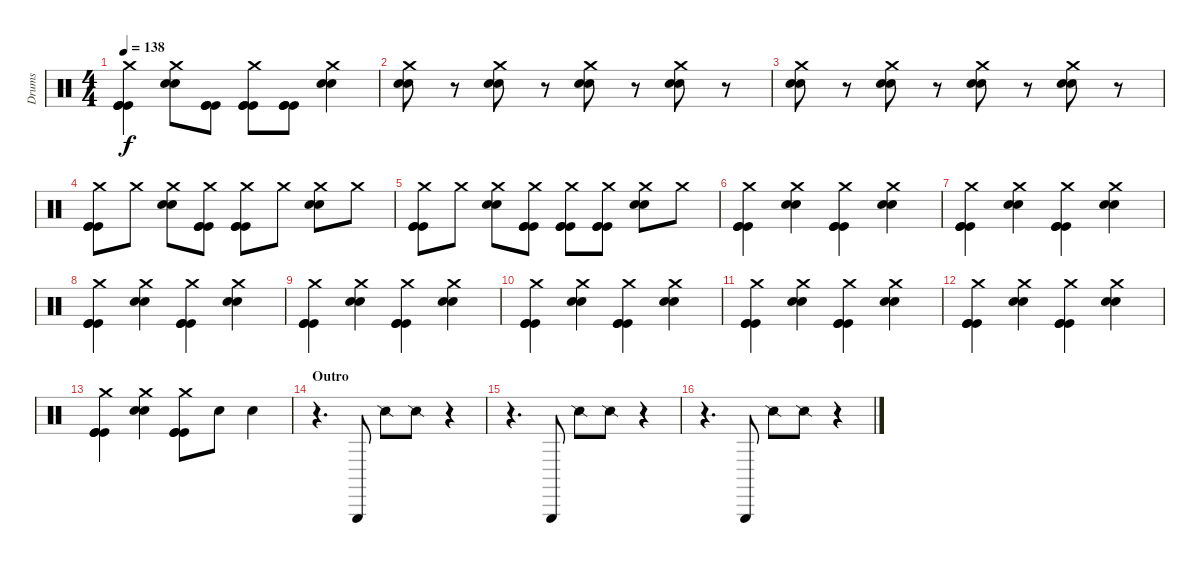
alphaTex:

\track ("Drums" "Drums") {instrument percussion}
\staff {score}
\articulation defaults
\ts (4 4)
\tempo 138
\clef neutral
\ks c
("Crash medium (hit)" "Kick (hit)" "Kick (hit)" "Kick (hit)").4{dy f} ("Crash medium (hit)" "Electric Snare (hit)" "Electric Snare (hit)").8 ("Kick (hit)" "Kick (hit)" "Kick (hit)").8 ("Crash medium (hit)" "Kick (hit)" "Kick (hit)" "Kick (hit)").8 ("Kick (hit)" "Kick (hit)" "Kick (hit)").8 ("Crash medium (hit)" "Electric Snare (hit)" "Electric Snare (hit)").4 |
("Crash medium (hit)" "Electric Snare (hit)" "Electric Snare (hit)").8 r.8 ("Crash medium (hit)" "Electric Snare (hit)" "Electric Snare (hit)").8 r.8 ("Crash medium (hit)" "Electric Snare (hit)" "Electric Snare (hit)").8 r.8 ("Crash medium (hit)" "Electric Snare (hit)" "Electric Snare (hit)").8 r.8 |
("Crash medium (hit)" "Electric Snare (hit)" "Electric Snare (hit)").8 r.8 ("Crash medium (hit)" "Electric Snare (hit)" "Electric Snare (hit)").8 r.8 ("Crash medium (hit)" "Electric Snare (hit)" "Electric Snare (hit)").8 r.8 ("Crash medium (hit)" "Electric Snare (hit)" "Electric Snare (hit)").8 r.8 |
("Crash medium (hit)" "Kick (hit)" "Kick (hit)" "Kick (hit)").8 "Crash medium (hit)".8 ("Crash medium (hit)" "Electric Snare (hit)" "Electric Snare (hit)").8 ("Crash medium (hit)" "Kick (hit)" "Kick (hit)" "Kick (hit)").8 ("Crash medium (hit)" "Kick (hit)" "Kick (hit)" "Kick (hit)").8 "Crash medium (hit)".8 ("Crash medium (hit)" "Electric Snare (hit)" "Electric Snare (hit)").8 "Crash medium (hit)".8 |
("Crash medium (hit)" "Kick (hit)" "Kick (hit)" "Kick (hit)").8 "Crash medium (hit)".8 ("Crash medium (hit)" "Electric Snare (hit)" "Electric Snare (hit)").8 ("Crash medium (hit)" "Kick (hit)" "Kick (hit)" "Kick (hit)").8 ("Crash medium (hit)" "Kick (hit)" "Kick (hit)" "Kick (hit)").8 ("Crash medium (hit)" "Kick (hit)" "Kick (hit)" "Kick (hit)").8 ("Crash medium (hit)" "Electric Snare (hit)" "Electric Snare (hit)").8 "Crash medium (hit)".8 |
("Crash medium (hit)" "Kick (hit)" "Kick (hit)" "Kick (hit)").4 ("Crash medium (hit)" "Electric Snare (hit)" "Electric Snare (hit)").4 ("Crash medium (hit)" "Kick (hit)" "Kick (hit)" "Kick (hit)").4 ("Crash medium (hit)" "Electric Snare (hit)" "Electric Snare (hit)").4 |
("Crash medium (hit)" "Kick (hit)" "Kick (hit)" "Kick (hit)").4 ("Crash medium (hit)" "Electric Snare (hit)" "Electric Snare (hit)").4 ("Crash medium (hit)" "Kick (hit)" "Kick (hit)" "Kick (hit)").4 ("Crash medium (hit)" "Electric Snare (hit)" "Electric Snare (hit)").4 |
("Crash medium (hit)" "Kick (hit)" "Kick (hit)" "Kick (hit)").4 ("Crash medium (hit)" "Electric Snare (hit)" "Electric Snare (hit)").4 ("Crash medium (hit)" "Kick (hit)" "Kick (hit)" "Kick (hit)").4 ("Crash medium (hit)" "Electric Snare (hit)" "Electric Snare (hit)").4 |
("Crash medium (hit)" "Kick (hit)" "Kick (hit)" "Kick (hit)").4 ("Crash medium (hit)" "Electric Snare (hit)" "Electric Snare (hit)").4 ("Crash medium (hit)" "Kick (hit)" "Kick (hit)" "Kick (hit)").4 ("Crash medium (hit)" "Electric Snare (hit)" "Electric Snare (hit)").4 |
("Crash medium (hit)" "Kick (hit)" "Kick (hit)" "Kick (hit)").4 ("Crash medium (hit)" "Electric Snare (hit)" "Electric Snare (hit)").4 ("Crash medium (hit)" "Kick (hit)" "Kick (hit)" "Kick (hit)").4 ("Crash medium (hit)" "Electric Snare (hit)" "Electric Snare (hit)").4 |
("Crash medium (hit)" "Kick (hit)" "Kick (hit)" "Kick (hit)").4 ("Crash medium (hit)" "Electric Snare (hit)" "Electric Snare (hit)").4 ("Crash medium (hit)" "Kick (hit)" "Kick (hit)" "Kick (hit)").4 ("Crash medium (hit)" "Electric Snare (hit)" "Electric Snare (hit)").4 |
("Crash medium (hit)" "Kick (hit)" "Kick (hit)" "Kick (hit)").4 ("Crash medium (hit)" "Electric Snare (hit)" "Electric Snare (hit)").4 ("Crash medium (hit)" "Kick (hit)" "Kick (hit)" "Kick (hit)").4 ("Crash medium (hit)" "Electric Snare (hit)" "Electric Snare (hit)").4 |
("Crash medium (hit)" "Kick (hit)" "Kick (hit)" "Kick (hit)").4 ("Crash medium (hit)" "Electric Snare (hit)" "Electric Snare (hit)").4 ("Crash medium (hit)" "Kick (hit)" "Kick (hit)" "Kick (hit)").8 "Electric Snare (hit)".8 "Electric Snare (hit)".4 |
\section ("" "Outro")
r.4{d} "Triangle (hit)".8 "Snare (side stick) 2".8 "Snare (side stick) 2".8 r.4 |
r.4{d} "Triangle (hit)".8 "Snare (side stick) 2".8 "Snare (side stick) 2".8 r.4 |
r.4{d} "Triangle (hit)".8 "Snare (side stick) 2".8 "Snare (side stick) 2".8 r.4
